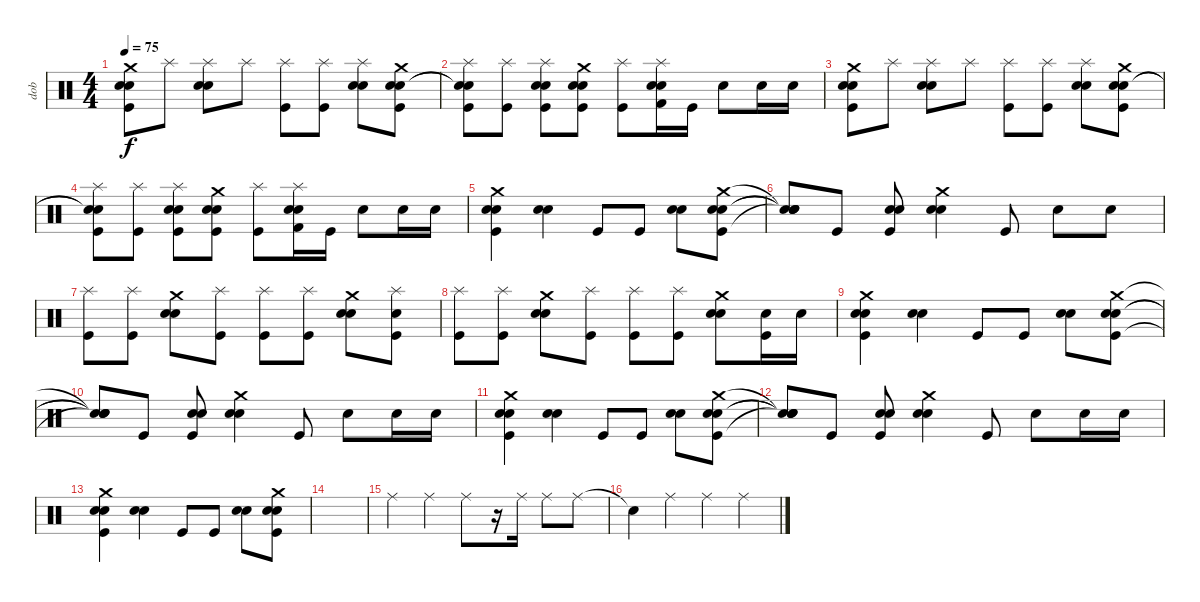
\track ("dob" "dob") {instrument percussion}
\staff {score}
\articulation defaults
\ts (4 4)
\tempo 75
\clef neutral
\ks c
("Crash medium (hit)" "Snare (hit) 2" "Electric Snare (hit)" "Kick (hit)").8{dy f} "Splash (hit)".8 ("Splash (hit)" "Snare (hit) 2" "Electric Snare (hit)").8 "Splash (hit)".8 ("Splash (hit)" "Kick (hit)").8 ("Splash (hit)" "Kick (hit)").8 ("Splash (hit)" "Snare (hit) 2" "Electric Snare (hit)").8 ("Crash medium (hit)" "Snare (hit) 2" "Electric Snare (hit)" "Kick (hit)").8 |
("Splash (hit)" "Snare (hit)"{t} "Snare (hit)"{t} "Kick (hit)").8 ("Splash (hit)" "Kick (hit)").8 ("Splash (hit)" "Snare (hit) 2" "Electric Snare (hit)" "Kick (hit)").8 ("Crash medium (hit)" "Snare (hit) 2" "Electric Snare (hit)" "Kick (hit)").8 ("Splash (hit)" "Kick (hit)").8 ("Splash (hit)" "Snare (hit) 2" "Electric Snare (hit)" "Kick (hit) 2").16 "Kick (hit)".16 "Snare (hit) 2".8 "Snare (hit) 2".16 "Snare (hit) 2".16 |
("Crash medium (hit)" "Snare (hit) 2" "Electric Snare (hit)" "Kick (hit)").8 "Splash (hit)".8 ("Splash (hit)" "Snare (hit) 2" "Electric Snare (hit)").8 "Splash (hit)".8 ("Splash (hit)" "Kick (hit)").8 ("Splash (hit)" "Kick (hit)").8 ("Splash (hit)" "Snare (hit) 2" "Electric Snare (hit)").8 ("Crash medium (hit)" "Snare (hit) 2" "Electric Snare (hit)" "Kick (hit)").8 |
("Splash (hit)" "Snare (hit)"{t} "Snare (hit)"{t} "Kick (hit)").8 ("Splash (hit)" "Kick (hit)").8 ("Splash (hit)" "Snare (hit) 2" "Electric Snare (hit)" "Kick (hit)").8 ("Crash medium (hit)" "Snare (hit) 2" "Electric Snare (hit)" "Kick (hit)").8 ("Splash (hit)" "Kick (hit)").8 ("Splash (hit)" "Snare (hit) 2" "Electric Snare (hit)" "Kick (hit) 2").16 "Kick (hit)".16 "Snare (hit) 2".8 "Snare (hit) 2".16 "Snare (hit) 2".16 |
("Crash medium (hit)" "Snare (hit) 2" "Electric Snare (hit)" "Kick (hit)").4 ("Snare (hit) 2" "Electric Snare (hit)").4 "Kick (hit)".8 "Kick (hit)".8 ("Snare (hit) 2" "Electric Snare (hit)").8 ("Crash medium (hit)" "Snare (hit) 2" "Electric Snare (hit)" "Kick (hit)").8 |
("Snare (hit)"{t} "Snare (hit)"{t} "Snare (hit)"{t} "Snare (hit)"{t}).8 "Kick (hit)".8 ("Snare (hit) 2" "Electric Snare (hit)" "Kick (hit)").8 ("Crash medium (hit)" "Snare (hit) 2" "Electric Snare (hit)").4 "Kick (hit)".8 "Snare (hit) 2".8 "Snare (hit) 2".8 |
("Splash (hit)" "Kick (hit)").8 ("Splash (hit)" "Kick (hit)").8 ("Crash medium (hit)" "Snare (hit) 2" "Electric Snare (hit)").8 ("Splash (hit)" "Kick (hit)").8 ("Splash (hit)" "Kick (hit)").8 ("Splash (hit)" "Kick (hit)").8 ("Crash medium (hit)" "Snare (hit) 2" "Electric Snare (hit)").8 ("Splash (hit)" "Snare (hit) 2" "Kick (hit)").8 |
("Splash (hit)" "Kick (hit)").8 ("Splash (hit)" "Kick (hit)").8 ("Crash medium (hit)" "Snare (hit) 2" "Electric Snare (hit)").8 ("Splash (hit)" "Kick (hit)").8 ("Splash (hit)" "Kick (hit)").8 ("Splash (hit)" "Kick (hit)").8 ("Crash medium (hit)" "Snare (hit) 2" "Electric Snare (hit)").8 ("Snare (hit) 2" "Kick (hit)").16 "Snare (hit) 2".16 |
("Crash medium (hit)" "Snare (hit) 2" "Electric Snare (hit)" "Kick (hit)").4 ("Snare (hit) 2" "Electric Snare (hit)").4 "Kick (hit)".8 "Kick (hit)".8 ("Snare (hit) 2" "Electric Snare (hit)").8 ("Crash medium (hit)" "Snare (hit) 2" "Electric Snare (hit)" "Kick (hit)").8 |
("Snare (hit)"{t} "Snare (hit)"{t} "Snare (hit)"{t} "Snare (hit)"{t}).8 "Kick (hit)".8 ("Snare (hit) 2" "Electric Snare (hit)" "Kick (hit)").8 ("Crash medium (hit)" "Snare (hit) 2" "Electric Snare (hit)").4 "Kick (hit)".8 "Snare (hit) 2".8 "Snare (hit) 2".16 "Snare (hit) 2".16 |
("Crash medium (hit)" "Snare (hit) 2" "Electric Snare (hit)" "Kick (hit)").4 ("Snare (hit) 2" "Electric Snare (hit)").4 "Kick (hit)".8 "Kick (hit)".8 ("Snare (hit) 2" "Electric Snare (hit)").8 ("Crash medium (hit)" "Snare (hit) 2" "Electric Snare (hit)" "Kick (hit)").8 |
("Snare (hit)"{t} "Snare (hit)"{t} "Snare (hit)"{t} "Snare (hit)"{t}).8 "Kick (hit)".8 ("Snare (hit) 2" "Electric Snare (hit)" "Kick (hit)").8 ("Crash medium (hit)" "Snare (hit) 2" "Electric Snare (hit)").4 "Kick (hit)".8 "Snare (hit) 2".8 "Snare (hit) 2".16 "Snare (hit) 2".16 |
("Crash medium (hit)" "Snare (hit) 2" "Electric Snare (hit)" "Kick (hit)").4 ("Snare (hit) 2" "Electric Snare (hit)").4 "Kick (hit)".8 "Kick (hit)".8 ("Snare (hit) 2" "Electric Snare (hit)").8 ("Crash medium (hit)" "Snare (hit) 2" "Electric Snare (hit)" "Kick (hit)").8 |
|
"Ride (middle)".4 "Ride (middle)".4 "Ride (middle)".8 r.16 "Ride (middle)".16 "Ride (middle)".8 "Ride (middle)".8 |
"Snare (hit)"{t}.4 "Ride (middle)".4 "Ride (middle)".4 "Ride (middle)".4
